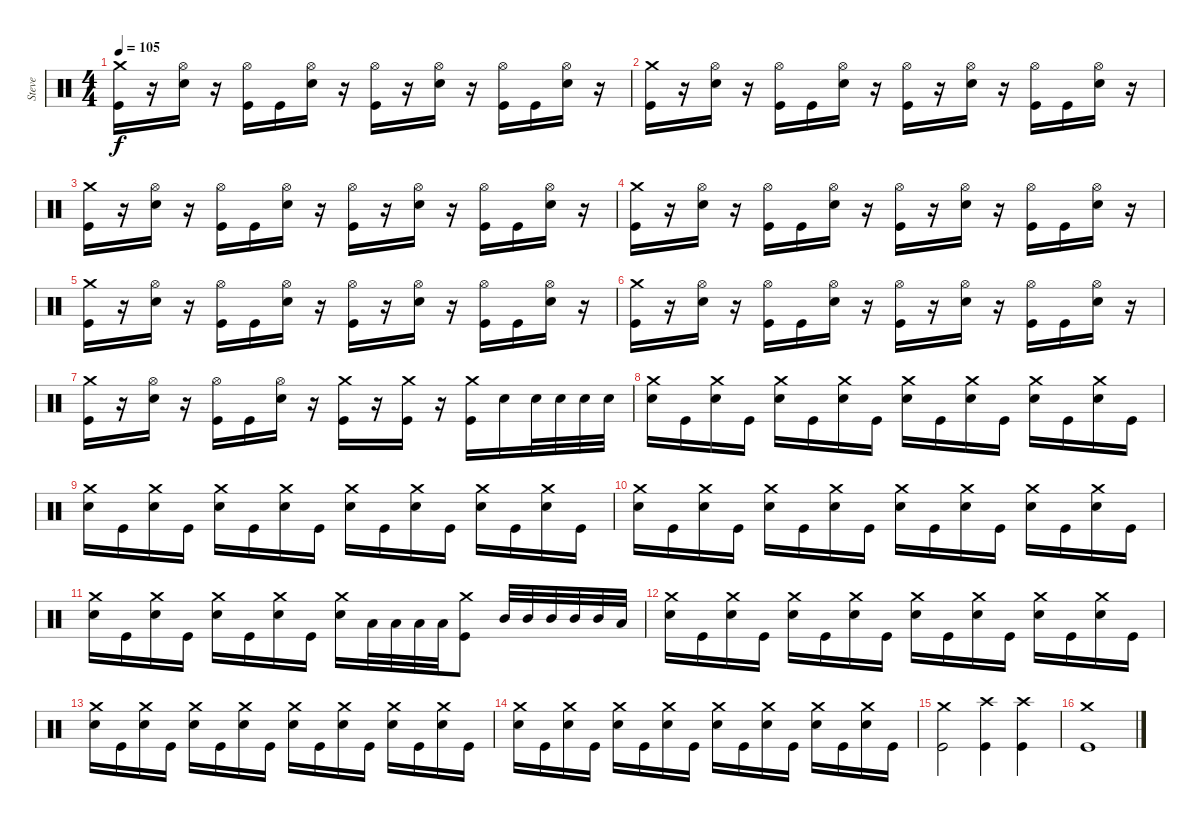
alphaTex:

\track ("Steve" "Steve") {instrument percussion}
\staff {score}
\articulation defaults
\ts (4 4)
\tempo 105
\clef neutral
\ks c
("Crash medium (hit)" "Kick (hit)").16{dy f} r.16 ("Hi-Hat (open)" "Electric Snare (hit)").16 r.16 ("Hi-Hat (open)" "Kick (hit)").16 "Kick (hit)".16 ("Hi-Hat (open)" "Electric Snare (hit)").16 r.16 ("Hi-Hat (open)" "Kick (hit)").16 r.16 ("Hi-Hat (open)" "Electric Snare (hit)").16 r.16 ("Hi-Hat (open)" "Kick (hit)").16 "Kick (hit)".16 ("Hi-Hat (open)" "Electric Snare (hit)").16 r.16 |
("Crash medium (hit)" "Kick (hit)").16 r.16 ("Hi-Hat (open)" "Electric Snare (hit)").16 r.16 ("Hi-Hat (open)" "Kick (hit)").16 "Kick (hit)".16 ("Hi-Hat (open)" "Electric Snare (hit)").16 r.16 ("Hi-Hat (open)" "Kick (hit)").16 r.16 ("Hi-Hat (open)" "Electric Snare (hit)").16 r.16 ("Hi-Hat (open)" "Kick (hit)").16 "Kick (hit)".16 ("Hi-Hat (open)" "Electric Snare (hit)").16 r.16 |
("Crash medium (hit)" "Kick (hit)").16 r.16 ("Hi-Hat (open)" "Electric Snare (hit)").16 r.16 ("Hi-Hat (open)" "Kick (hit)").16 "Kick (hit)".16 ("Hi-Hat (open)" "Electric Snare (hit)").16 r.16 ("Hi-Hat (open)" "Kick (hit)").16 r.16 ("Hi-Hat (open)" "Electric Snare (hit)").16 r.16 ("Hi-Hat (open)" "Kick (hit)").16 "Kick (hit)".16 ("Hi-Hat (open)" "Electric Snare (hit)").16 r.16 |
("Crash medium (hit)" "Kick (hit)").16 r.16 ("Hi-Hat (open)" "Electric Snare (hit)").16 r.16 ("Hi-Hat (open)" "Kick (hit)").16 "Kick (hit)".16 ("Hi-Hat (open)" "Electric Snare (hit)").16 r.16 ("Hi-Hat (open)" "Kick (hit)").16 r.16 ("Hi-Hat (open)" "Electric Snare (hit)").16 r.16 ("Hi-Hat (open)" "Kick (hit)").16 "Kick (hit)".16 ("Hi-Hat (open)" "Electric Snare (hit)").16 r.16 |
("Crash medium (hit)" "Kick (hit)").16 r.16 ("Hi-Hat (open)" "Electric Snare (hit)").16 r.16 ("Hi-Hat (open)" "Kick (hit)").16 "Kick (hit)".16 ("Hi-Hat (open)" "Electric Snare (hit)").16 r.16 ("Hi-Hat (open)" "Kick (hit)").16 r.16 ("Hi-Hat (open)" "Electric Snare (hit)").16 r.16 ("Hi-Hat (open)" "Kick (hit)").16 "Kick (hit)".16 ("Hi-Hat (open)" "Electric Snare (hit)").16 r.16 |
("Crash medium (hit)" "Kick (hit)").16 r.16 ("Hi-Hat (open)" "Electric Snare (hit)").16 r.16 ("Hi-Hat (open)" "Kick (hit)").16 "Kick (hit)".16 ("Hi-Hat (open)" "Electric Snare (hit)").16 r.16 ("Hi-Hat (open)" "Kick (hit)").16 r.16 ("Hi-Hat (open)" "Electric Snare (hit)").16 r.16 ("Hi-Hat (open)" "Kick (hit)").16 "Kick (hit)".16 ("Hi-Hat (open)" "Electric Snare (hit)").16 r.16 |
("Crash medium (hit)" "Kick (hit)").16 r.16 ("Hi-Hat (open)" "Electric Snare (hit)").16 r.16 ("Hi-Hat (open)" "Kick (hit)").16 "Kick (hit)".16 ("Hi-Hat (open)" "Electric Snare (hit)").16 r.16 ("Crash medium (hit)" "Kick (hit)").16 r.16 ("Crash medium (hit)" "Kick (hit)").16 r.16 ("Crash medium (hit)" "Kick (hit)").16 "Electric Snare (hit)".16 "Electric Snare (hit)".32 "Electric Snare (hit)".32 "Electric Snare (hit)".32 "Electric Snare (hit)".32 |
("Crash medium (hit)" "Electric Snare (hit)").16 "Kick (hit)".16 ("Crash medium (hit)" "Electric Snare (hit)").16 "Kick (hit)".16 ("Crash medium (hit)" "Electric Snare (hit)").16 "Kick (hit)".16 ("Crash medium (hit)" "Electric Snare (hit)").16 "Kick (hit)".16 ("Crash medium (hit)" "Electric Snare (hit)").16 "Kick (hit)".16 ("Crash medium (hit)" "Electric Snare (hit)").16 "Kick (hit)".16 ("Crash medium (hit)" "Electric Snare (hit)").16 "Kick (hit)".16 ("Crash medium (hit)" "Electric Snare (hit)").16 "Kick (hit)".16 |
("Crash medium (hit)" "Electric Snare (hit)").16 "Kick (hit)".16 ("Crash medium (hit)" "Electric Snare (hit)").16 "Kick (hit)".16 ("Crash medium (hit)" "Electric Snare (hit)").16 "Kick (hit)".16 ("Crash medium (hit)" "Electric Snare (hit)").16 "Kick (hit)".16 ("Crash medium (hit)" "Electric Snare (hit)").16 "Kick (hit)".16 ("Crash medium (hit)" "Electric Snare (hit)").16 "Kick (hit)".16 ("Crash medium (hit)" "Electric Snare (hit)").16 "Kick (hit)".16 ("Crash medium (hit)" "Electric Snare (hit)").16 "Kick (hit)".16 |
("Crash medium (hit)" "Electric Snare (hit)").16 "Kick (hit)".16 ("Crash medium (hit)" "Electric Snare (hit)").16 "Kick (hit)".16 ("Crash medium (hit)" "Electric Snare (hit)").16 "Kick (hit)".16 ("Crash medium (hit)" "Electric Snare (hit)").16 "Kick (hit)".16 ("Crash medium (hit)" "Electric Snare (hit)").16 "Kick (hit)".16 ("Crash medium (hit)" "Electric Snare (hit)").16 "Kick (hit)".16 ("Crash medium (hit)" "Electric Snare (hit)").16 "Kick (hit)".16 ("Crash medium (hit)" "Electric Snare (hit)").16 "Kick (hit)".16 |
("Crash medium (hit)" "Electric Snare (hit)").16 "Kick (hit)".16 ("Crash medium (hit)" "Electric Snare (hit)").16 "Kick (hit)".16 ("Crash medium (hit)" "Electric Snare (hit)").16 "Kick (hit)".16 ("Crash medium (hit)" "Electric Snare (hit)").16 "Kick (hit)".16 ("Crash medium (hit)" "Electric Snare (hit)").16 "Low Tom (hit)".32 "Low Tom (hit)".32 "Low Tom (hit)".32 "Low Tom (hit)".32 ("Crash medium (hit)" "Kick (hit)").8 "Mid Tom (hit)".32 "Mid Tom (hit)".32 "Mid Tom (hit)".32 "Mid Tom (hit)".32 "Mid Tom (hit)".32 "Low Tom (hit)".32 |
("Crash medium (hit)" "Electric Snare (hit)").16 "Kick (hit)".16 ("Crash medium (hit)" "Electric Snare (hit)").16 "Kick (hit)".16 ("Crash medium (hit)" "Electric Snare (hit)").16 "Kick (hit)".16 ("Crash medium (hit)" "Electric Snare (hit)").16 "Kick (hit)".16 ("Crash medium (hit)" "Electric Snare (hit)").16 "Kick (hit)".16 ("Crash medium (hit)" "Electric Snare (hit)").16 "Kick (hit)".16 ("Crash medium (hit)" "Electric Snare (hit)").16 "Kick (hit)".16 ("Crash medium (hit)" "Electric Snare (hit)").16 "Kick (hit)".16 |
("Crash medium (hit)" "Electric Snare (hit)").16 "Kick (hit)".16 ("Crash medium (hit)" "Electric Snare (hit)").16 "Kick (hit)".16 ("Crash medium (hit)" "Electric Snare (hit)").16 "Kick (hit)".16 ("Crash medium (hit)" "Electric Snare (hit)").16 "Kick (hit)".16 ("Crash medium (hit)" "Electric Snare (hit)").16 "Kick (hit)".16 ("Crash medium (hit)" "Electric Snare (hit)").16 "Kick (hit)".16 ("Crash medium (hit)" "Electric Snare (hit)").16 "Kick (hit)".16 ("Crash medium (hit)" "Electric Snare (hit)").16 "Kick (hit)".16 |
("Crash medium (hit)" "Electric Snare (hit)").16 "Kick (hit)".16 ("Crash medium (hit)" "Electric Snare (hit)").16 "Kick (hit)".16 ("Crash medium (hit)" "Electric Snare (hit)").16 "Kick (hit)".16 ("Crash medium (hit)" "Electric Snare (hit)").16 "Kick (hit)".16 ("Crash medium (hit)" "Electric Snare (hit)").16 "Kick (hit)".16 ("Crash medium (hit)" "Electric Snare (hit)").16 "Kick (hit)".16 ("Crash medium (hit)" "Electric Snare (hit)").16 "Kick (hit)".16 ("Crash medium (hit)" "Electric Snare (hit)").16 "Kick (hit)".16 |
("Crash medium (hit)" "Kick (hit)").2 ("Crash high (hit)" "Kick (hit)").4 ("Crash high (hit)" "Kick (hit)").4 |
("Crash medium (hit)" "Kick (hit)").1
